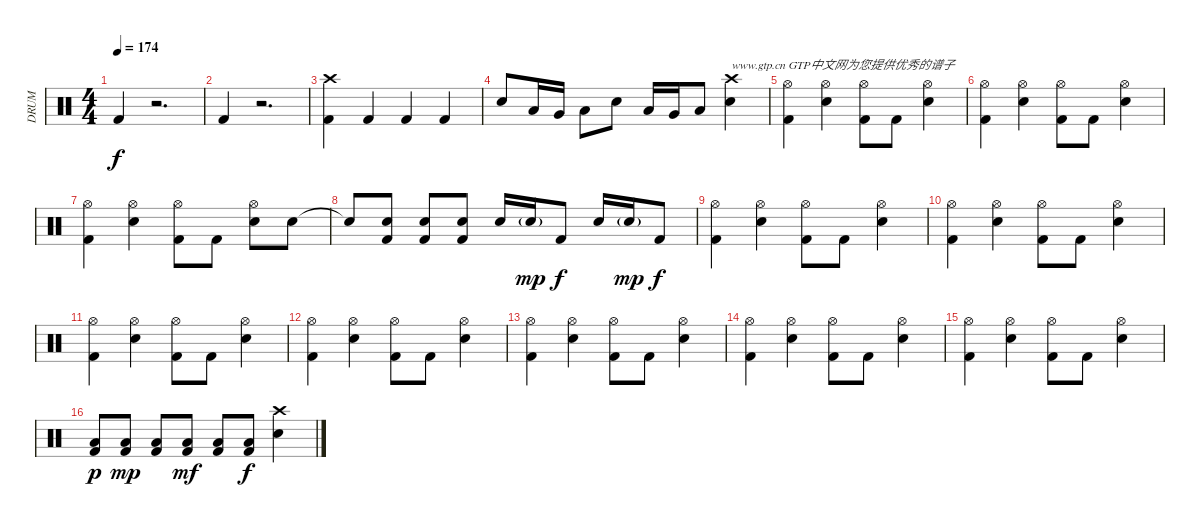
\track ("DRUM" "DRUM") {instrument percussion}
\staff {score}
\articulation defaults
\ts (4 4)
\tempo 174
\clef neutral
\ks c "Kick (hit) 2".4{dy f}
r.2{d} |
"Kick (hit) 2".4 r.2{d} |
("Crash high (hit)" "Kick (hit) 2").4 "Kick (hit) 2".4 "Kick (hit) 2".4 "Kick (hit) 2".4 |
"Snare (hit) 2".8 "Low Tom (hit)".16 "Very Low Tom (hit)".16 "Low Tom (hit)".8 "Snare (hit) 2".8 "Low Tom (hit)".16 "Very Low Tom (hit)".16 "Low Tom (hit)".8 ("Crash high (hit)" "Snare (hit) 2").4{txt "www.gtp.cn GTP中文网为您提供优秀的谱子"} |
("Hi-Hat (open)" "Kick (hit) 2").4 ("Hi-Hat (open)" "Snare (hit) 2").4 ("Hi-Hat (open)" "Kick (hit) 2").8 "Kick (hit) 2".8 ("Hi-Hat (open)" "Snare (hit) 2").4 |
("Hi-Hat (open)" "Kick (hit) 2").4 ("Hi-Hat (open)" "Snare (hit) 2").4 ("Hi-Hat (open)" "Kick (hit) 2").8 "Kick (hit) 2".8 ("Hi-Hat (open)" "Snare (hit) 2").4 |
("Hi-Hat (open)" "Kick (hit) 2").4 ("Hi-Hat (open)" "Snare (hit) 2").4 ("Hi-Hat (open)" "Kick (hit) 2").8 "Kick (hit) 2".8 ("Hi-Hat (open)" "Snare (hit) 2").8 "Snare (hit) 2".8 |
"Snare (hit)"{t}.8 ("Snare (hit) 2" "Kick (hit) 2").8 ("Snare (hit) 2" "Kick (hit) 2").8 ("Snare (hit) 2" "Kick (hit) 2").8 "Snare (hit) 2".16 "Snare (hit) 2"{g}.16{dy mp} "Kick (hit) 2".8{dy f} "Snare (hit) 2".16 "Snare (hit) 2"{g}.16{dy mp} "Kick (hit) 2".8{dy f} |
("Hi-Hat (open)" "Kick (hit) 2").4 ("Hi-Hat (open)" "Snare (hit) 2").4 ("Hi-Hat (open)" "Kick (hit) 2").8 "Kick (hit) 2".8 ("Hi-Hat (open)" "Snare (hit) 2").4 |
("Hi-Hat (open)" "Kick (hit) 2").4 ("Hi-Hat (open)" "Snare (hit) 2").4 ("Hi-Hat (open)" "Kick (hit) 2").8 "Kick (hit) 2".8 ("Hi-Hat (open)" "Snare (hit) 2").4 |
("Hi-Hat (open)" "Kick (hit) 2").4 ("Hi-Hat (open)" "Snare (hit) 2").4 ("Hi-Hat (open)" "Kick (hit) 2").8 "Kick (hit) 2".8 ("Hi-Hat (open)" "Snare (hit) 2").4 |
("Hi-Hat (open)" "Kick (hit) 2").4 ("Hi-Hat (open)" "Snare (hit) 2").4 ("Hi-Hat (open)" "Kick (hit) 2").8 "Kick (hit) 2".8 ("Hi-Hat (open)" "Snare (hit) 2").4 |
("Hi-Hat (open)" "Kick (hit) 2").4 ("Hi-Hat (open)" "Snare (hit) 2").4 ("Hi-Hat (open)" "Kick (hit) 2").8 "Kick (hit) 2".8 ("Hi-Hat (open)" "Snare (hit) 2").4 |
("Hi-Hat (open)" "Kick (hit) 2").4 ("Hi-Hat (open)" "Snare (hit) 2").4 ("Hi-Hat (open)" "Kick (hit) 2").8 "Kick (hit) 2".8 ("Hi-Hat (open)" "Snare (hit) 2").4 |
("Hi-Hat (open)" "Kick (hit) 2").4 ("Hi-Hat (open)" "Snare (hit) 2").4 ("Hi-Hat (open)" "Kick (hit) 2").8 "Kick (hit) 2".8 ("Hi-Hat (open)" "Snare (hit) 2").4 |
("Low Tom (hit)" "Kick (hit) 2").8{dy p} ("Low Tom (hit)" "Kick (hit) 2").8{dy mp} ("Low Tom (hit)" "Kick (hit) 2").8 ("Low Tom (hit)" "Kick (hit) 2").8{dy mf} ("Low Tom (hit)" "Kick (hit) 2").8 ("Low Tom (hit)" "Kick (hit) 2").8{dy f} ("Crash high (hit)" "Snare (hit) 2").4
